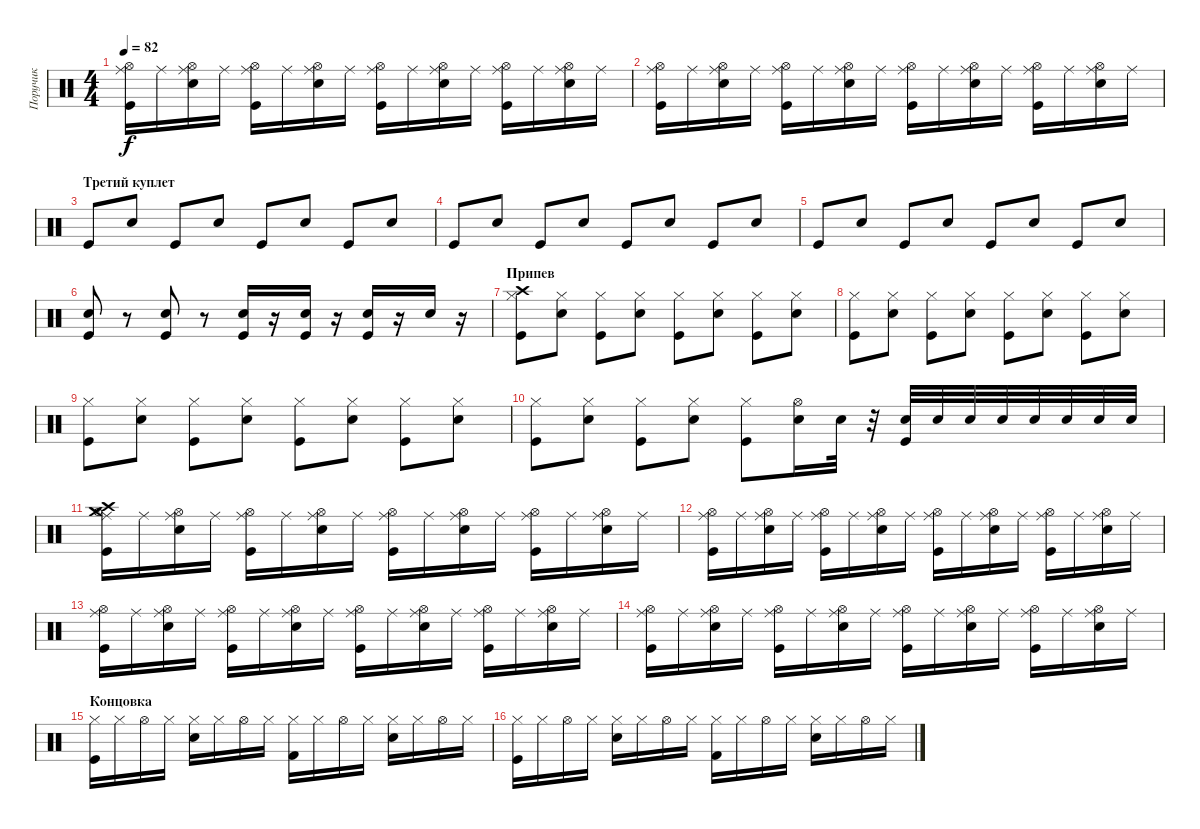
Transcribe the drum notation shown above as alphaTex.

\track ("Поручик" "Поручик") {instrument percussion}
\staff {score}
\articulation defaults
\ts (4 4)
\tempo 82
\clef neutral
\ks c
("Hi-Hat (open)" "Kick (hit)" "Ride (middle)").16{dy f} "Ride (middle)".16 ("Ride (middle)" "Hi-Hat (open)" "Snare (hit) 2").16 "Ride (middle)".16 ("Hi-Hat (open)" "Ride (middle)" "Kick (hit)").16 "Ride (middle)".16 ("Hi-Hat (open)" "Snare (hit) 2" "Ride (middle)").16 "Ride (middle)".16 ("Ride (middle)" "Hi-Hat (open)" "Kick (hit)").16 "Ride (middle)".16 ("Snare (hit) 2" "Hi-Hat (open)" "Ride (middle)").16 "Ride (middle)".16 ("Kick (hit)" "Ride (middle)" "Hi-Hat (open)").16 "Ride (middle)".16 ("Ride (middle)" "Snare (hit) 2" "Hi-Hat (open)").16 "Ride (middle)".16 |
("Hi-Hat (open)" "Ride (middle)" "Kick (hit)").16 "Ride (middle)".16 ("Snare (hit) 2" "Ride (middle)" "Hi-Hat (open)").16 "Ride (middle)".16 ("Ride (middle)" "Hi-Hat (open)" "Kick (hit)").16 "Ride (middle)".16 ("Ride (middle)" "Hi-Hat (open)" "Snare (hit) 2").16 "Ride (middle)".16 ("Ride (middle)" "Kick (hit)" "Hi-Hat (open)").16 "Ride (middle)".16 ("Hi-Hat (open)" "Ride (middle)" "Snare (hit) 2").16 "Ride (middle)".16 ("Kick (hit)" "Ride (middle)" "Hi-Hat (open)").16 "Ride (middle)".16 ("Snare (hit) 2" "Hi-Hat (open)" "Ride (middle)").16 "Ride (middle)".16 |
\section ("" "Третий куплет")
"Kick (hit)".8 "Snare (hit) 2".8 "Kick (hit)".8 "Snare (hit) 2".8 "Kick (hit)".8 "Snare (hit) 2".8 "Kick (hit)".8 "Snare (hit) 2".8 |
"Kick (hit)".8 "Snare (hit) 2".8 "Kick (hit)".8 "Snare (hit) 2".8 "Kick (hit)".8 "Snare (hit) 2".8 "Kick (hit)".8 "Snare (hit) 2".8 |
"Kick (hit)".8 "Snare (hit) 2".8 "Kick (hit)".8 "Snare (hit) 2".8 "Kick (hit)".8 "Snare (hit) 2".8 "Kick (hit)".8 "Snare (hit) 2".8 |
("Kick (hit)" "Snare (hit) 2").8 r.8 ("Snare (hit) 2" "Kick (hit)").8 r.8 ("Snare (hit) 2" "Kick (hit)").16 r.16 ("Kick (hit)" "Snare (hit) 2").16 r.16 ("Kick (hit)" "Snare (hit) 2").16 r.16 "Snare (hit) 2".16 r.16 |
\section ("" "Припев")
("Crash high (hit)" "Kick (hit)" "Hi-Hat (closed)").8 ("Hi-Hat (closed)" "Snare (hit) 2").8 ("Hi-Hat (closed)" "Kick (hit)").8 ("Snare (hit) 2" "Hi-Hat (closed)").8 ("Hi-Hat (closed)" "Kick (hit)").8 ("Hi-Hat (closed)" "Snare (hit) 2").8 ("Hi-Hat (closed)" "Kick (hit)").8 ("Snare (hit) 2" "Hi-Hat (closed)").8 |
("Kick (hit)" "Hi-Hat (closed)").8 ("Snare (hit) 2" "Hi-Hat (closed)").8 ("Kick (hit)" "Hi-Hat (closed)").8 ("Snare (hit) 2" "Hi-Hat (closed)").8 ("Hi-Hat (closed)" "Kick (hit)").8 ("Snare (hit) 2" "Hi-Hat (closed)").8 ("Kick (hit)" "Hi-Hat (closed)").8 ("Snare (hit) 2" "Hi-Hat (closed)").8 |
("Kick (hit)" "Hi-Hat (closed)").8 ("Hi-Hat (closed)" "Snare (hit) 2").8 ("Hi-Hat (closed)" "Kick (hit)").8 ("Hi-Hat (closed)" "Snare (hit) 2").8 ("Hi-Hat (closed)" "Kick (hit)").8 ("Hi-Hat (closed)" "Snare (hit) 2").8 ("Hi-Hat (closed)" "Kick (hit)").8 ("Hi-Hat (closed)" "Snare (hit) 2").8 |
("Hi-Hat (closed)" "Kick (hit)").8 ("Hi-Hat (closed)" "Snare (hit) 2").8 ("Kick (hit)" "Hi-Hat (closed)").8 ("Hi-Hat (closed)" "Snare (hit) 2").8 ("Hi-Hat (closed)" "Kick (hit)").8 ("Hi-Hat (open)" "Snare (hit) 2").16 "Snare (hit) 2".32 r.32 ("Kick (hit)" "Snare (hit) 2").32 "Snare (hit) 2".32 "Snare (hit) 2".32 "Snare (hit) 2".32 "Snare (hit) 2".32 "Snare (hit) 2".32 "Snare (hit) 2".32 "Snare (hit) 2".32 |
("Hi-Hat (open)" "Ride (middle)" "Crash high (hit)" "Crash medium (hit)" "Kick (hit)").16 "Ride (middle)".16 ("Snare (hit) 2" "Ride (middle)" "Hi-Hat (open)").16 "Ride (middle)".16 ("Ride (middle)" "Hi-Hat (open)" "Kick (hit)").16 "Ride (middle)".16 ("Hi-Hat (open)" "Ride (middle)" "Snare (hit) 2").16 "Ride (middle)".16 ("Hi-Hat (open)" "Ride (middle)" "Kick (hit)").16 "Ride (middle)".16 ("Hi-Hat (open)" "Ride (middle)" "Snare (hit) 2").16 "Ride (middle)".16 ("Hi-Hat (open)" "Kick (hit)" "Ride (middle)").16 "Ride (middle)".16 ("Snare (hit) 2" "Ride (middle)" "Hi-Hat (open)").16 "Ride (middle)".16 |
("Hi-Hat (open)" "Ride (middle)" "Kick (hit)").16 "Ride (middle)".16 ("Hi-Hat (open)" "Snare (hit) 2" "Ride (middle)").16 "Ride (middle)".16 ("Kick (hit)" "Hi-Hat (open)" "Ride (middle)").16 "Ride (middle)".16 ("Ride (middle)" "Snare (hit) 2" "Hi-Hat (open)").16 "Ride (middle)".16 ("Ride (middle)" "Hi-Hat (open)" "Kick (hit)").16 "Ride (middle)".16 ("Snare (hit) 2" "Ride (middle)" "Hi-Hat (open)").16 "Ride (middle)".16 ("Kick (hit)" "Ride (middle)" "Hi-Hat (open)").16 "Ride (middle)".16 ("Snare (hit) 2" "Hi-Hat (open)" "Ride (middle)").16 "Ride (middle)".16 |
("Ride (middle)" "Kick (hit)" "Hi-Hat (open)").16 "Ride (middle)".16 ("Hi-Hat (open)" "Snare (hit) 2" "Ride (middle)").16 "Ride (middle)".16 ("Kick (hit)" "Ride (middle)" "Hi-Hat (open)").16 "Ride (middle)".16 ("Ride (middle)" "Hi-Hat (open)" "Snare (hit) 2").16 "Ride (middle)".16 ("Ride (middle)" "Hi-Hat (open)" "Kick (hit)").16 "Ride (middle)".16 ("Hi-Hat (open)" "Ride (middle)" "Snare (hit) 2").16 "Ride (middle)".16 ("Kick (hit)" "Hi-Hat (open)" "Ride (middle)").16 "Ride (middle)".16 ("Ride (middle)" "Hi-Hat (open)" "Snare (hit) 2").16 "Ride (middle)".16 |
("Hi-Hat (open)" "Ride (middle)" "Kick (hit)").16 "Ride (middle)".16 ("Hi-Hat (open)" "Ride (middle)" "Snare (hit) 2").16 "Ride (middle)".16 ("Hi-Hat (open)" "Ride (middle)" "Kick (hit)").16 "Ride (middle)".16 ("Snare (hit) 2" "Hi-Hat (open)" "Ride (middle)").16 "Ride (middle)".16 ("Hi-Hat (open)" "Ride (middle)" "Kick (hit)").16 "Ride (middle)".16 ("Snare (hit) 2" "Hi-Hat (open)" "Ride (middle)").16 "Ride (middle)".16 ("Kick (hit)" "Ride (middle)" "Hi-Hat (open)").16 "Ride (middle)".16 ("Snare (hit) 2" "Hi-Hat (open)" "Ride (middle)").16 "Ride (middle)".16 |
\section ("" "Концовка")
("Hi-Hat (closed)" "Kick (hit)").16 "Hi-Hat (closed)".16 "Hi-Hat (open)".16 "Hi-Hat (closed)".16 ("Hi-Hat (closed)" "Snare (hit) 2").16 "Hi-Hat (closed)".16 "Hi-Hat (open)".16 "Hi-Hat (closed)".16 ("Kick (hit) 2" "Hi-Hat (closed)").16 "Hi-Hat (closed)".16 "Hi-Hat (open)".16 "Hi-Hat (closed)".16 ("Hi-Hat (closed)" "Snare (hit) 2").16 "Hi-Hat (closed)".16 "Hi-Hat (open)".16 "Hi-Hat (closed)".16 |
("Hi-Hat (closed)" "Kick (hit)").16 "Hi-Hat (closed)".16 "Hi-Hat (open)".16 "Hi-Hat (closed)".16 ("Hi-Hat (closed)" "Snare (hit) 2").16 "Hi-Hat (closed)".16 "Hi-Hat (open)".16 "Hi-Hat (closed)".16 ("Kick (hit) 2" "Hi-Hat (closed)").16 "Hi-Hat (closed)".16 "Hi-Hat (open)".16 "Hi-Hat (closed)".16 ("Hi-Hat (closed)" "Snare (hit) 2").16 "Hi-Hat (closed)".16 "Hi-Hat (open)".16 "Hi-Hat (closed)".16
